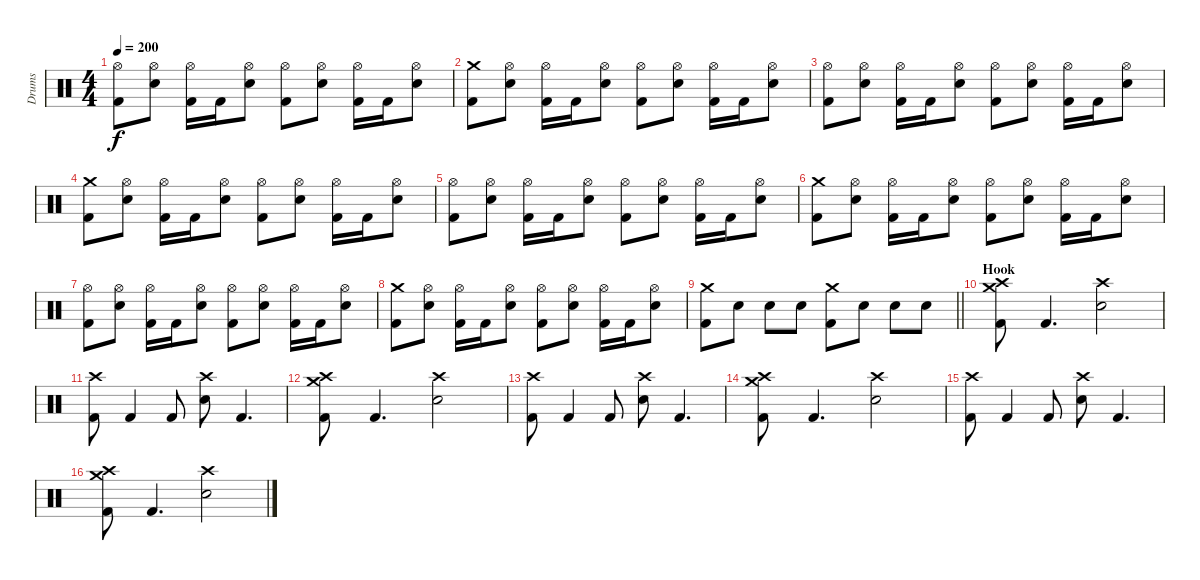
\track ("Drums" "Drums") {instrument percussion}
\staff {score}
\articulation defaults
\ts (4 4)
\tempo 200
\clef neutral
\ks c
("Hi-Hat (open)" "Kick (hit) 2").8{dy f} ("Hi-Hat (open)" "Electric Snare (hit)").8 ("Hi-Hat (open)" "Kick (hit) 2").16 "Kick (hit) 2".16 ("Hi-Hat (open)" "Electric Snare (hit)").8 ("Hi-Hat (open)" "Kick (hit) 2").8 ("Hi-Hat (open)" "Electric Snare (hit)").8 ("Hi-Hat (open)" "Kick (hit) 2").16 "Kick (hit) 2".16 ("Hi-Hat (open)" "Electric Snare (hit)").8 |
("Crash medium (hit)" "Kick (hit) 2").8 ("Hi-Hat (open)" "Electric Snare (hit)").8 ("Hi-Hat (open)" "Kick (hit) 2").16 "Kick (hit) 2".16 ("Hi-Hat (open)" "Electric Snare (hit)").8 ("Hi-Hat (open)" "Kick (hit) 2").8 ("Hi-Hat (open)" "Electric Snare (hit)").8 ("Hi-Hat (open)" "Kick (hit) 2").16 "Kick (hit) 2".16 ("Hi-Hat (open)" "Electric Snare (hit)").8 |
("Hi-Hat (open)" "Kick (hit) 2").8 ("Hi-Hat (open)" "Electric Snare (hit)").8 ("Hi-Hat (open)" "Kick (hit) 2").16 "Kick (hit) 2".16 ("Hi-Hat (open)" "Electric Snare (hit)").8 ("Hi-Hat (open)" "Kick (hit) 2").8 ("Hi-Hat (open)" "Electric Snare (hit)").8 ("Hi-Hat (open)" "Kick (hit) 2").16 "Kick (hit) 2".16 ("Hi-Hat (open)" "Electric Snare (hit)").8 |
("Crash medium (hit)" "Kick (hit) 2").8 ("Hi-Hat (open)" "Electric Snare (hit)").8 ("Hi-Hat (open)" "Kick (hit) 2").16 "Kick (hit) 2".16 ("Hi-Hat (open)" "Electric Snare (hit)").8 ("Hi-Hat (open)" "Kick (hit) 2").8 ("Hi-Hat (open)" "Electric Snare (hit)").8 ("Hi-Hat (open)" "Kick (hit) 2").16 "Kick (hit) 2".16 ("Hi-Hat (open)" "Electric Snare (hit)").8 |
("Hi-Hat (open)" "Kick (hit) 2").8 ("Hi-Hat (open)" "Electric Snare (hit)").8 ("Hi-Hat (open)" "Kick (hit) 2").16 "Kick (hit) 2".16 ("Hi-Hat (open)" "Electric Snare (hit)").8 ("Hi-Hat (open)" "Kick (hit) 2").8 ("Hi-Hat (open)" "Electric Snare (hit)").8 ("Hi-Hat (open)" "Kick (hit) 2").16 "Kick (hit) 2".16 ("Hi-Hat (open)" "Electric Snare (hit)").8 |
("Crash medium (hit)" "Kick (hit) 2").8 ("Hi-Hat (open)" "Electric Snare (hit)").8 ("Hi-Hat (open)" "Kick (hit) 2").16 "Kick (hit) 2".16 ("Hi-Hat (open)" "Electric Snare (hit)").8 ("Hi-Hat (open)" "Kick (hit) 2").8 ("Hi-Hat (open)" "Electric Snare (hit)").8 ("Hi-Hat (open)" "Kick (hit) 2").16 "Kick (hit) 2".16 ("Hi-Hat (open)" "Electric Snare (hit)").8 |
("Hi-Hat (open)" "Kick (hit) 2").8 ("Hi-Hat (open)" "Electric Snare (hit)").8 ("Hi-Hat (open)" "Kick (hit) 2").16 "Kick (hit) 2".16 ("Hi-Hat (open)" "Electric Snare (hit)").8 ("Hi-Hat (open)" "Kick (hit) 2").8 ("Hi-Hat (open)" "Electric Snare (hit)").8 ("Hi-Hat (open)" "Kick (hit) 2").16 "Kick (hit) 2".16 ("Hi-Hat (open)" "Electric Snare (hit)").8 |
("Crash medium (hit)" "Kick (hit) 2").8 ("Hi-Hat (open)" "Electric Snare (hit)").8 ("Hi-Hat (open)" "Kick (hit) 2").16 "Kick (hit) 2".16 ("Hi-Hat (open)" "Electric Snare (hit)").8 ("Hi-Hat (open)" "Kick (hit) 2").8 ("Hi-Hat (open)" "Electric Snare (hit)").8 ("Hi-Hat (open)" "Kick (hit) 2").16 "Kick (hit) 2".16 ("Hi-Hat (open)" "Electric Snare (hit)").8 |
\barLineRight lightlight
("Crash medium (hit)" "Kick (hit) 2").8 "Electric Snare (hit)".8 "Electric Snare (hit)".8 "Electric Snare (hit)".8 ("Crash medium (hit)" "Kick (hit) 2").8 "Electric Snare (hit)".8 "Electric Snare (hit)".8 "Electric Snare (hit)".8 |
\section ("" "Hook")
("Crash medium (hit)" "Crash high (hit)" "Kick (hit) 2").8 "Kick (hit) 2".4{d} ("Crash high (hit)" "Electric Snare (hit)").2 |
("Crash high (hit)" "Kick (hit) 2").8 "Kick (hit) 2".4 "Kick (hit) 2".8 ("Crash high (hit)" "Electric Snare (hit)").8 "Kick (hit) 2".4{d} |
("Crash medium (hit)" "Crash high (hit)" "Kick (hit) 2").8 "Kick (hit) 2".4{d} ("Crash high (hit)" "Electric Snare (hit)").2 |
("Crash high (hit)" "Kick (hit) 2").8 "Kick (hit) 2".4 "Kick (hit) 2".8 ("Crash high (hit)" "Electric Snare (hit)").8 "Kick (hit) 2".4{d} |
("Crash medium (hit)" "Crash high (hit)" "Kick (hit) 2").8 "Kick (hit) 2".4{d} ("Crash high (hit)" "Electric Snare (hit)").2 |
("Crash high (hit)" "Kick (hit) 2").8 "Kick (hit) 2".4 "Kick (hit) 2".8 ("Crash high (hit)" "Electric Snare (hit)").8 "Kick (hit) 2".4{d} |
("Crash medium (hit)" "Crash high (hit)" "Kick (hit) 2").8 "Kick (hit) 2".4{d} ("Crash high (hit)" "Electric Snare (hit)").2
